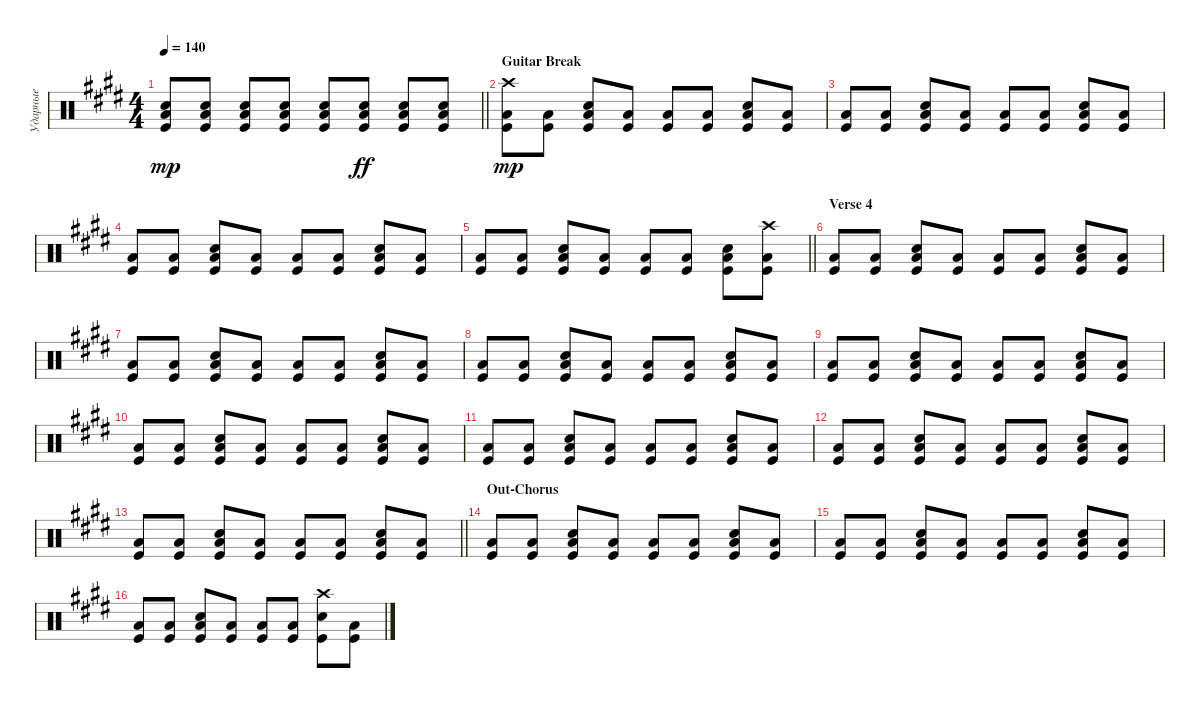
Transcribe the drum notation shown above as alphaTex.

\track ("Ударные" "Ударные") {instrument percussion}
\staff {score}
\articulation defaults
\ts (4 4)
\tempo 140
\clef neutral
\barLineRight lightlight
\ks c#minor
("Kick (hit)" "Low Floor Tom (hit)" "Snare (hit) 2").8{dy mp} ("Kick (hit)" "Snare (hit) 2" "Low Floor Tom (hit)").8 ("Kick (hit)" "Low Floor Tom (hit)" "Snare (hit) 2").8 ("Kick (hit)" "Low Floor Tom (hit)" "Snare (hit) 2").8 ("Kick (hit)" "Low Floor Tom (hit)" "Snare (hit) 2").8 ("Kick (hit)" "Low Floor Tom (hit)" "Snare (hit) 2").8{dy ff} ("Kick (hit)" "Low Floor Tom (hit)" "Snare (hit) 2").8 ("Kick (hit)" "Low Floor Tom (hit)" "Snare (hit) 2").8 |
\section ("" "Guitar Break")
("Kick (hit)" "Low Floor Tom (hit)" "Crash high (hit)").8{dy mp} ("Kick (hit)" "Low Floor Tom (hit)").8 ("Kick (hit)" "Low Floor Tom (hit)" "Snare (hit) 2").8 ("Kick (hit)" "Low Floor Tom (hit)").8 ("Kick (hit)" "Low Floor Tom (hit)").8 ("Kick (hit)" "Low Floor Tom (hit)").8 ("Kick (hit)" "Low Floor Tom (hit)" "Snare (hit) 2").8 ("Kick (hit)" "Low Floor Tom (hit)").8 |
("Kick (hit)" "Low Floor Tom (hit)").8 ("Kick (hit)" "Low Floor Tom (hit)").8 ("Kick (hit)" "Low Floor Tom (hit)" "Snare (hit) 2").8 ("Kick (hit)" "Low Floor Tom (hit)").8 ("Kick (hit)" "Low Floor Tom (hit)").8 ("Kick (hit)" "Low Floor Tom (hit)").8 ("Kick (hit)" "Low Floor Tom (hit)" "Snare (hit) 2").8 ("Kick (hit)" "Low Floor Tom (hit)").8 |
("Kick (hit)" "Low Floor Tom (hit)").8 ("Kick (hit)" "Low Floor Tom (hit)").8 ("Kick (hit)" "Low Floor Tom (hit)" "Snare (hit) 2").8 ("Kick (hit)" "Low Floor Tom (hit)").8 ("Kick (hit)" "Low Floor Tom (hit)").8 ("Kick (hit)" "Low Floor Tom (hit)").8 ("Kick (hit)" "Low Floor Tom (hit)" "Snare (hit) 2").8 ("Kick (hit)" "Low Floor Tom (hit)").8 |
\barLineRight lightlight
("Kick (hit)" "Low Floor Tom (hit)").8 ("Kick (hit)" "Low Floor Tom (hit)").8 ("Kick (hit)" "Low Floor Tom (hit)" "Snare (hit) 2").8 ("Kick (hit)" "Low Floor Tom (hit)").8 ("Kick (hit)" "Low Floor Tom (hit)").8 ("Kick (hit)" "Low Floor Tom (hit)").8 ("Kick (hit)" "Low Floor Tom (hit)" "Snare (hit) 2").8 ("Kick (hit)" "Low Floor Tom (hit)" "Crash high (hit)").8 |
\section ("" "Verse 4")
("Kick (hit)" "Low Floor Tom (hit)").8 ("Kick (hit)" "Low Floor Tom (hit)").8 ("Kick (hit)" "Low Floor Tom (hit)" "Snare (hit) 2").8 ("Kick (hit)" "Low Floor Tom (hit)").8 ("Kick (hit)" "Low Floor Tom (hit)").8 ("Kick (hit)" "Low Floor Tom (hit)").8 ("Kick (hit)" "Low Floor Tom (hit)" "Snare (hit) 2").8 ("Kick (hit)" "Low Floor Tom (hit)").8 |
("Kick (hit)" "Low Floor Tom (hit)").8 ("Kick (hit)" "Low Floor Tom (hit)").8 ("Kick (hit)" "Low Floor Tom (hit)" "Snare (hit) 2").8 ("Kick (hit)" "Low Floor Tom (hit)").8 ("Kick (hit)" "Low Floor Tom (hit)").8 ("Kick (hit)" "Low Floor Tom (hit)").8 ("Kick (hit)" "Low Floor Tom (hit)" "Snare (hit) 2").8 ("Kick (hit)" "Low Floor Tom (hit)").8 |
("Kick (hit)" "Low Floor Tom (hit)").8 ("Kick (hit)" "Low Floor Tom (hit)").8 ("Kick (hit)" "Low Floor Tom (hit)" "Snare (hit) 2").8 ("Kick (hit)" "Low Floor Tom (hit)").8 ("Kick (hit)" "Low Floor Tom (hit)").8 ("Kick (hit)" "Low Floor Tom (hit)").8 ("Kick (hit)" "Low Floor Tom (hit)" "Snare (hit) 2").8 ("Kick (hit)" "Low Floor Tom (hit)").8 |
("Kick (hit)" "Low Floor Tom (hit)").8 ("Kick (hit)" "Low Floor Tom (hit)").8 ("Kick (hit)" "Low Floor Tom (hit)" "Snare (hit) 2").8 ("Kick (hit)" "Low Floor Tom (hit)").8 ("Kick (hit)" "Low Floor Tom (hit)").8 ("Kick (hit)" "Low Floor Tom (hit)").8 ("Kick (hit)" "Low Floor Tom (hit)" "Snare (hit) 2").8 ("Kick (hit)" "Low Floor Tom (hit)").8 |
("Kick (hit)" "Low Floor Tom (hit)").8 ("Kick (hit)" "Low Floor Tom (hit)").8 ("Kick (hit)" "Low Floor Tom (hit)" "Snare (hit) 2").8 ("Kick (hit)" "Low Floor Tom (hit)").8 ("Kick (hit)" "Low Floor Tom (hit)").8 ("Kick (hit)" "Low Floor Tom (hit)").8 ("Kick (hit)" "Low Floor Tom (hit)" "Snare (hit) 2").8 ("Kick (hit)" "Low Floor Tom (hit)").8 |
("Kick (hit)" "Low Floor Tom (hit)").8 ("Kick (hit)" "Low Floor Tom (hit)").8 ("Kick (hit)" "Low Floor Tom (hit)" "Snare (hit) 2").8 ("Kick (hit)" "Low Floor Tom (hit)").8 ("Kick (hit)" "Low Floor Tom (hit)").8 ("Kick (hit)" "Low Floor Tom (hit)").8 ("Kick (hit)" "Low Floor Tom (hit)" "Snare (hit) 2").8 ("Kick (hit)" "Low Floor Tom (hit)").8 |
("Kick (hit)" "Low Floor Tom (hit)").8 ("Kick (hit)" "Low Floor Tom (hit)").8 ("Kick (hit)" "Low Floor Tom (hit)" "Snare (hit) 2").8 ("Kick (hit)" "Low Floor Tom (hit)").8 ("Kick (hit)" "Low Floor Tom (hit)").8 ("Kick (hit)" "Low Floor Tom (hit)").8 ("Kick (hit)" "Low Floor Tom (hit)" "Snare (hit) 2").8 ("Kick (hit)" "Low Floor Tom (hit)").8 |
\barLineRight lightlight
("Kick (hit)" "Low Floor Tom (hit)").8 ("Kick (hit)" "Low Floor Tom (hit)").8 ("Kick (hit)" "Low Floor Tom (hit)" "Snare (hit) 2").8 ("Kick (hit)" "Low Floor Tom (hit)").8 ("Kick (hit)" "Low Floor Tom (hit)").8 ("Kick (hit)" "Low Floor Tom (hit)").8 ("Kick (hit)" "Low Floor Tom (hit)" "Snare (hit) 2").8 ("Kick (hit)" "Low Floor Tom (hit)").8 |
\section ("" "Out-Chorus")
("Kick (hit)" "Low Floor Tom (hit)").8 ("Kick (hit)" "Low Floor Tom (hit)").8 ("Kick (hit)" "Low Floor Tom (hit)" "Snare (hit) 2").8 ("Kick (hit)" "Low Floor Tom (hit)").8 ("Kick (hit)" "Low Floor Tom (hit)").8 ("Kick (hit)" "Low Floor Tom (hit)").8 ("Kick (hit)" "Low Floor Tom (hit)" "Snare (hit) 2").8 ("Kick (hit)" "Low Floor Tom (hit)").8 |
("Kick (hit)" "Low Floor Tom (hit)").8 ("Kick (hit)" "Low Floor Tom (hit)").8 ("Kick (hit)" "Low Floor Tom (hit)" "Snare (hit) 2").8 ("Kick (hit)" "Low Floor Tom (hit)").8 ("Kick (hit)" "Low Floor Tom (hit)").8 ("Kick (hit)" "Low Floor Tom (hit)").8 ("Kick (hit)" "Low Floor Tom (hit)" "Snare (hit) 2").8 ("Kick (hit)" "Low Floor Tom (hit)").8 |
("Kick (hit)" "Low Floor Tom (hit)").8 ("Kick (hit)" "Low Floor Tom (hit)").8 ("Kick (hit)" "Low Floor Tom (hit)" "Snare (hit) 2").8 ("Kick (hit)" "Low Floor Tom (hit)").8 ("Kick (hit)" "Low Floor Tom (hit)").8 ("Kick (hit)" "Low Floor Tom (hit)").8 ("Kick (hit)" "Snare (hit) 2" "Crash high (hit)").8 ("Kick (hit)" "Low Floor Tom (hit)").8
